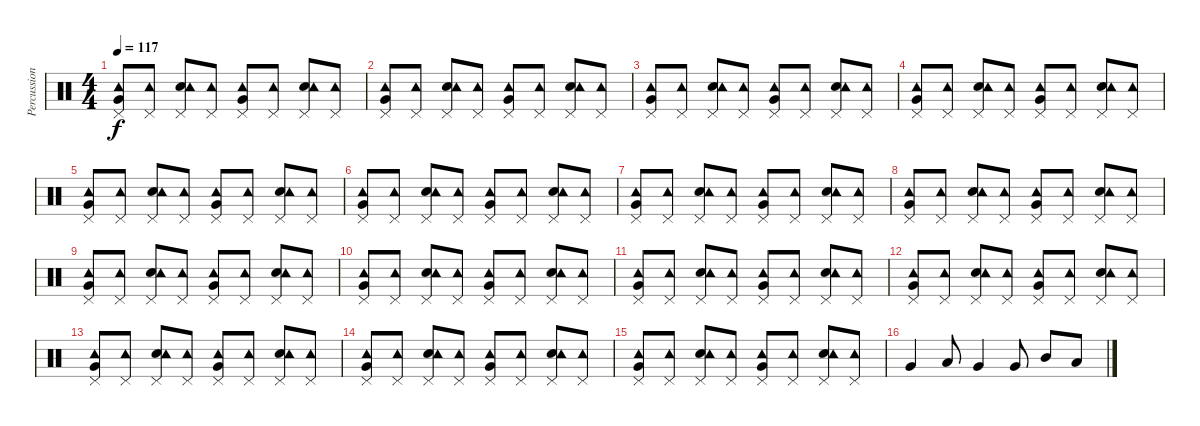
\track ("Percussion" "Percussion") {instrument percussion}
\staff {score}
\articulation defaults
\ts (4 4)
\tempo 117
\clef neutral
\ks c
("Very Low Tom (hit)" "Pedal Hi-Hat (hit)" "Tambourine (hit)").8{dy f} ("Pedal Hi-Hat (hit)" "Tambourine (hit)").8 ("Electric Snare (hit)" "Pedal Hi-Hat (hit)" "Tambourine (hit)").8 ("Pedal Hi-Hat (hit)" "Tambourine (hit)").8 ("Very Low Tom (hit)" "Pedal Hi-Hat (hit)" "Tambourine (hit)").8 ("Pedal Hi-Hat (hit)" "Tambourine (hit)").8 ("Electric Snare (hit)" "Pedal Hi-Hat (hit)" "Tambourine (hit)").8 ("Pedal Hi-Hat (hit)" "Tambourine (hit)").8 |
("Very Low Tom (hit)" "Pedal Hi-Hat (hit)" "Tambourine (hit)").8 ("Pedal Hi-Hat (hit)" "Tambourine (hit)").8 ("Electric Snare (hit)" "Pedal Hi-Hat (hit)" "Tambourine (hit)").8 ("Pedal Hi-Hat (hit)" "Tambourine (hit)").8 ("Very Low Tom (hit)" "Pedal Hi-Hat (hit)" "Tambourine (hit)").8 ("Pedal Hi-Hat (hit)" "Tambourine (hit)").8 ("Electric Snare (hit)" "Pedal Hi-Hat (hit)" "Tambourine (hit)").8 ("Pedal Hi-Hat (hit)" "Tambourine (hit)").8 |
("Very Low Tom (hit)" "Pedal Hi-Hat (hit)" "Tambourine (hit)").8 ("Pedal Hi-Hat (hit)" "Tambourine (hit)").8 ("Electric Snare (hit)" "Pedal Hi-Hat (hit)" "Tambourine (hit)").8 ("Pedal Hi-Hat (hit)" "Tambourine (hit)").8 ("Very Low Tom (hit)" "Pedal Hi-Hat (hit)" "Tambourine (hit)").8 ("Pedal Hi-Hat (hit)" "Tambourine (hit)").8 ("Electric Snare (hit)" "Pedal Hi-Hat (hit)" "Tambourine (hit)").8 ("Pedal Hi-Hat (hit)" "Tambourine (hit)").8 |
("Very Low Tom (hit)" "Pedal Hi-Hat (hit)" "Tambourine (hit)").8 ("Pedal Hi-Hat (hit)" "Tambourine (hit)").8 ("Electric Snare (hit)" "Pedal Hi-Hat (hit)" "Tambourine (hit)").8 ("Pedal Hi-Hat (hit)" "Tambourine (hit)").8 ("Very Low Tom (hit)" "Pedal Hi-Hat (hit)" "Tambourine (hit)").8 ("Pedal Hi-Hat (hit)" "Tambourine (hit)").8 ("Electric Snare (hit)" "Pedal Hi-Hat (hit)" "Tambourine (hit)").8 ("Pedal Hi-Hat (hit)" "Tambourine (hit)").8 |
("Very Low Tom (hit)" "Pedal Hi-Hat (hit)" "Tambourine (hit)").8 ("Pedal Hi-Hat (hit)" "Tambourine (hit)").8 ("Electric Snare (hit)" "Pedal Hi-Hat (hit)" "Tambourine (hit)").8 ("Pedal Hi-Hat (hit)" "Tambourine (hit)").8 ("Very Low Tom (hit)" "Pedal Hi-Hat (hit)" "Tambourine (hit)").8 ("Pedal Hi-Hat (hit)" "Tambourine (hit)").8 ("Electric Snare (hit)" "Pedal Hi-Hat (hit)" "Tambourine (hit)").8 ("Pedal Hi-Hat (hit)" "Tambourine (hit)").8 |
("Very Low Tom (hit)" "Pedal Hi-Hat (hit)" "Tambourine (hit)").8 ("Pedal Hi-Hat (hit)" "Tambourine (hit)").8 ("Electric Snare (hit)" "Pedal Hi-Hat (hit)" "Tambourine (hit)").8 ("Pedal Hi-Hat (hit)" "Tambourine (hit)").8 ("Very Low Tom (hit)" "Pedal Hi-Hat (hit)" "Tambourine (hit)").8 ("Pedal Hi-Hat (hit)" "Tambourine (hit)").8 ("Electric Snare (hit)" "Pedal Hi-Hat (hit)" "Tambourine (hit)").8 ("Pedal Hi-Hat (hit)" "Tambourine (hit)").8 |
("Very Low Tom (hit)" "Pedal Hi-Hat (hit)" "Tambourine (hit)").8 ("Pedal Hi-Hat (hit)" "Tambourine (hit)").8 ("Electric Snare (hit)" "Pedal Hi-Hat (hit)" "Tambourine (hit)").8 ("Pedal Hi-Hat (hit)" "Tambourine (hit)").8 ("Very Low Tom (hit)" "Pedal Hi-Hat (hit)" "Tambourine (hit)").8 ("Pedal Hi-Hat (hit)" "Tambourine (hit)").8 ("Electric Snare (hit)" "Pedal Hi-Hat (hit)" "Tambourine (hit)").8 ("Pedal Hi-Hat (hit)" "Tambourine (hit)").8 |
("Very Low Tom (hit)" "Pedal Hi-Hat (hit)" "Tambourine (hit)").8 ("Pedal Hi-Hat (hit)" "Tambourine (hit)").8 ("Electric Snare (hit)" "Pedal Hi-Hat (hit)" "Tambourine (hit)").8 ("Pedal Hi-Hat (hit)" "Tambourine (hit)").8 ("Very Low Tom (hit)" "Pedal Hi-Hat (hit)" "Tambourine (hit)").8 ("Pedal Hi-Hat (hit)" "Tambourine (hit)").8 ("Electric Snare (hit)" "Pedal Hi-Hat (hit)" "Tambourine (hit)").8 ("Pedal Hi-Hat (hit)" "Tambourine (hit)").8 |
("Very Low Tom (hit)" "Pedal Hi-Hat (hit)" "Tambourine (hit)").8 ("Pedal Hi-Hat (hit)" "Tambourine (hit)").8 ("Electric Snare (hit)" "Pedal Hi-Hat (hit)" "Tambourine (hit)").8 ("Pedal Hi-Hat (hit)" "Tambourine (hit)").8 ("Very Low Tom (hit)" "Pedal Hi-Hat (hit)" "Tambourine (hit)").8 ("Pedal Hi-Hat (hit)" "Tambourine (hit)").8 ("Electric Snare (hit)" "Pedal Hi-Hat (hit)" "Tambourine (hit)").8 ("Pedal Hi-Hat (hit)" "Tambourine (hit)").8 |
("Very Low Tom (hit)" "Pedal Hi-Hat (hit)" "Tambourine (hit)").8 ("Pedal Hi-Hat (hit)" "Tambourine (hit)").8 ("Electric Snare (hit)" "Pedal Hi-Hat (hit)" "Tambourine (hit)").8 ("Pedal Hi-Hat (hit)" "Tambourine (hit)").8 ("Very Low Tom (hit)" "Pedal Hi-Hat (hit)" "Tambourine (hit)").8 ("Pedal Hi-Hat (hit)" "Tambourine (hit)").8 ("Electric Snare (hit)" "Pedal Hi-Hat (hit)" "Tambourine (hit)").8 ("Pedal Hi-Hat (hit)" "Tambourine (hit)").8 |
("Very Low Tom (hit)" "Pedal Hi-Hat (hit)" "Tambourine (hit)").8 ("Pedal Hi-Hat (hit)" "Tambourine (hit)").8 ("Electric Snare (hit)" "Pedal Hi-Hat (hit)" "Tambourine (hit)").8 ("Pedal Hi-Hat (hit)" "Tambourine (hit)").8 ("Very Low Tom (hit)" "Pedal Hi-Hat (hit)" "Tambourine (hit)").8 ("Pedal Hi-Hat (hit)" "Tambourine (hit)").8 ("Electric Snare (hit)" "Pedal Hi-Hat (hit)" "Tambourine (hit)").8 ("Pedal Hi-Hat (hit)" "Tambourine (hit)").8 |
("Very Low Tom (hit)" "Pedal Hi-Hat (hit)" "Tambourine (hit)").8 ("Pedal Hi-Hat (hit)" "Tambourine (hit)").8 ("Electric Snare (hit)" "Pedal Hi-Hat (hit)" "Tambourine (hit)").8 ("Pedal Hi-Hat (hit)" "Tambourine (hit)").8 ("Very Low Tom (hit)" "Pedal Hi-Hat (hit)" "Tambourine (hit)").8 ("Pedal Hi-Hat (hit)" "Tambourine (hit)").8 ("Electric Snare (hit)" "Pedal Hi-Hat (hit)" "Tambourine (hit)").8 ("Pedal Hi-Hat (hit)" "Tambourine (hit)").8 |
("Very Low Tom (hit)" "Pedal Hi-Hat (hit)" "Tambourine (hit)").8 ("Pedal Hi-Hat (hit)" "Tambourine (hit)").8 ("Electric Snare (hit)" "Pedal Hi-Hat (hit)" "Tambourine (hit)").8 ("Pedal Hi-Hat (hit)" "Tambourine (hit)").8 ("Very Low Tom (hit)" "Pedal Hi-Hat (hit)" "Tambourine (hit)").8 ("Pedal Hi-Hat (hit)" "Tambourine (hit)").8 ("Electric Snare (hit)" "Pedal Hi-Hat (hit)" "Tambourine (hit)").8 ("Pedal Hi-Hat (hit)" "Tambourine (hit)").8 |
("Very Low Tom (hit)" "Pedal Hi-Hat (hit)" "Tambourine (hit)").8 ("Pedal Hi-Hat (hit)" "Tambourine (hit)").8 ("Electric Snare (hit)" "Pedal Hi-Hat (hit)" "Tambourine (hit)").8 ("Pedal Hi-Hat (hit)" "Tambourine (hit)").8 ("Very Low Tom (hit)" "Pedal Hi-Hat (hit)" "Tambourine (hit)").8 ("Pedal Hi-Hat (hit)" "Tambourine (hit)").8 ("Electric Snare (hit)" "Pedal Hi-Hat (hit)" "Tambourine (hit)").8 ("Pedal Hi-Hat (hit)" "Tambourine (hit)").8 |
("Very Low Tom (hit)" "Pedal Hi-Hat (hit)" "Tambourine (hit)").8 ("Pedal Hi-Hat (hit)" "Tambourine (hit)").8 ("Electric Snare (hit)" "Pedal Hi-Hat (hit)" "Tambourine (hit)").8 ("Pedal Hi-Hat (hit)" "Tambourine (hit)").8 ("Very Low Tom (hit)" "Pedal Hi-Hat (hit)" "Tambourine (hit)").8 ("Pedal Hi-Hat (hit)" "Tambourine (hit)").8 ("Electric Snare (hit)" "Pedal Hi-Hat (hit)" "Tambourine (hit)").8 ("Pedal Hi-Hat (hit)" "Tambourine (hit)").8 |
"Very Low Tom (hit)".4 "Low Tom (hit)".8 "Very Low Tom (hit)".4 "Very Low Tom (hit)".8 "Mid Tom (hit)".8 "Low Tom (hit)".8
